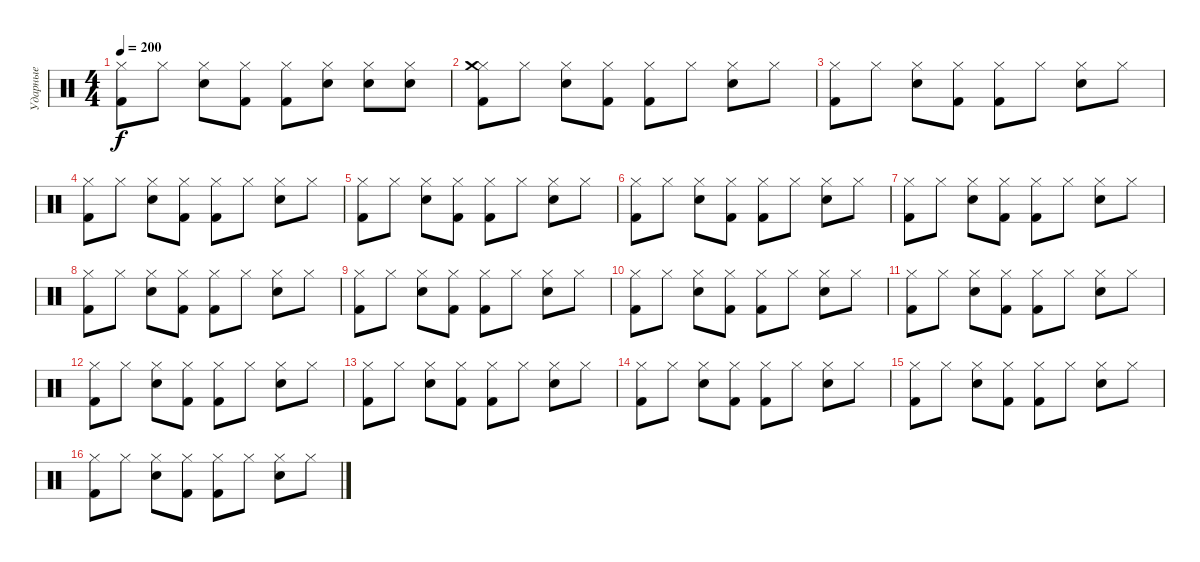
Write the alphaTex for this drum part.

\track ("Ударные" "Ударные") {instrument percussion}
\staff {score}
\articulation defaults
\ts (4 4)
\tempo 200
\clef neutral
\ks c
("Kick (hit) 2" "Hi-Hat (closed)").8{dy f} "Hi-Hat (closed)".8 ("Electric Snare (hit)" "Hi-Hat (closed)").8 ("Kick (hit) 2" "Hi-Hat (closed)").8 ("Kick (hit) 2" "Hi-Hat (closed)").8 ("Hi-Hat (closed)" "Electric Snare (hit)").8 ("Electric Snare (hit)" "Hi-Hat (closed)").8 ("Hi-Hat (closed)" "Electric Snare (hit)").8 |
("Kick (hit) 2" "Hi-Hat (closed)" "Crash medium (hit)").8 "Hi-Hat (closed)".8 ("Electric Snare (hit)" "Hi-Hat (closed)").8 ("Kick (hit) 2" "Hi-Hat (closed)").8 ("Kick (hit) 2" "Hi-Hat (closed)").8 "Hi-Hat (closed)".8 ("Electric Snare (hit)" "Hi-Hat (closed)").8 "Hi-Hat (closed)".8 |
("Kick (hit) 2" "Hi-Hat (closed)").8 "Hi-Hat (closed)".8 ("Electric Snare (hit)" "Hi-Hat (closed)").8 ("Kick (hit) 2" "Hi-Hat (closed)").8 ("Kick (hit) 2" "Hi-Hat (closed)").8 "Hi-Hat (closed)".8 ("Electric Snare (hit)" "Hi-Hat (closed)").8 "Hi-Hat (closed)".8 |
("Kick (hit) 2" "Hi-Hat (closed)").8 "Hi-Hat (closed)".8 ("Electric Snare (hit)" "Hi-Hat (closed)").8 ("Kick (hit) 2" "Hi-Hat (closed)").8 ("Kick (hit) 2" "Hi-Hat (closed)").8 "Hi-Hat (closed)".8 ("Electric Snare (hit)" "Hi-Hat (closed)").8 "Hi-Hat (closed)".8 |
("Kick (hit) 2" "Hi-Hat (closed)").8 "Hi-Hat (closed)".8 ("Electric Snare (hit)" "Hi-Hat (closed)").8 ("Kick (hit) 2" "Hi-Hat (closed)").8 ("Kick (hit) 2" "Hi-Hat (closed)").8 "Hi-Hat (closed)".8 ("Electric Snare (hit)" "Hi-Hat (closed)").8 "Hi-Hat (closed)".8 |
("Kick (hit) 2" "Hi-Hat (closed)").8 "Hi-Hat (closed)".8 ("Electric Snare (hit)" "Hi-Hat (closed)").8 ("Kick (hit) 2" "Hi-Hat (closed)").8 ("Kick (hit) 2" "Hi-Hat (closed)").8 "Hi-Hat (closed)".8 ("Electric Snare (hit)" "Hi-Hat (closed)").8 "Hi-Hat (closed)".8 |
("Kick (hit) 2" "Hi-Hat (closed)").8 "Hi-Hat (closed)".8 ("Electric Snare (hit)" "Hi-Hat (closed)").8 ("Kick (hit) 2" "Hi-Hat (closed)").8 ("Kick (hit) 2" "Hi-Hat (closed)").8 "Hi-Hat (closed)".8 ("Electric Snare (hit)" "Hi-Hat (closed)").8 "Hi-Hat (closed)".8 |
("Kick (hit) 2" "Hi-Hat (closed)").8 "Hi-Hat (closed)".8 ("Electric Snare (hit)" "Hi-Hat (closed)").8 ("Kick (hit) 2" "Hi-Hat (closed)").8 ("Kick (hit) 2" "Hi-Hat (closed)").8 "Hi-Hat (closed)".8 ("Electric Snare (hit)" "Hi-Hat (closed)").8 "Hi-Hat (closed)".8 |
("Kick (hit) 2" "Hi-Hat (closed)").8 "Hi-Hat (closed)".8 ("Electric Snare (hit)" "Hi-Hat (closed)").8 ("Kick (hit) 2" "Hi-Hat (closed)").8 ("Kick (hit) 2" "Hi-Hat (closed)").8 "Hi-Hat (closed)".8 ("Electric Snare (hit)" "Hi-Hat (closed)").8 "Hi-Hat (closed)".8 |
("Kick (hit) 2" "Hi-Hat (closed)").8 "Hi-Hat (closed)".8 ("Electric Snare (hit)" "Hi-Hat (closed)").8 ("Kick (hit) 2" "Hi-Hat (closed)").8 ("Kick (hit) 2" "Hi-Hat (closed)").8 "Hi-Hat (closed)".8 ("Electric Snare (hit)" "Hi-Hat (closed)").8 "Hi-Hat (closed)".8 |
("Kick (hit) 2" "Hi-Hat (closed)").8 "Hi-Hat (closed)".8 ("Electric Snare (hit)" "Hi-Hat (closed)").8 ("Kick (hit) 2" "Hi-Hat (closed)").8 ("Kick (hit) 2" "Hi-Hat (closed)").8 "Hi-Hat (closed)".8 ("Electric Snare (hit)" "Hi-Hat (closed)").8 "Hi-Hat (closed)".8 |
("Kick (hit) 2" "Hi-Hat (closed)").8 "Hi-Hat (closed)".8 ("Electric Snare (hit)" "Hi-Hat (closed)").8 ("Kick (hit) 2" "Hi-Hat (closed)").8 ("Kick (hit) 2" "Hi-Hat (closed)").8 "Hi-Hat (closed)".8 ("Electric Snare (hit)" "Hi-Hat (closed)").8 "Hi-Hat (closed)".8 |
("Kick (hit) 2" "Hi-Hat (closed)").8 "Hi-Hat (closed)".8 ("Electric Snare (hit)" "Hi-Hat (closed)").8 ("Kick (hit) 2" "Hi-Hat (closed)").8 ("Kick (hit) 2" "Hi-Hat (closed)").8 "Hi-Hat (closed)".8 ("Electric Snare (hit)" "Hi-Hat (closed)").8 "Hi-Hat (closed)".8 |
("Kick (hit) 2" "Hi-Hat (closed)").8 "Hi-Hat (closed)".8 ("Electric Snare (hit)" "Hi-Hat (closed)").8 ("Kick (hit) 2" "Hi-Hat (closed)").8 ("Kick (hit) 2" "Hi-Hat (closed)").8 "Hi-Hat (closed)".8 ("Electric Snare (hit)" "Hi-Hat (closed)").8 "Hi-Hat (closed)".8 |
("Kick (hit) 2" "Hi-Hat (closed)").8 "Hi-Hat (closed)".8 ("Electric Snare (hit)" "Hi-Hat (closed)").8 ("Kick (hit) 2" "Hi-Hat (closed)").8 ("Kick (hit) 2" "Hi-Hat (closed)").8 "Hi-Hat (closed)".8 ("Electric Snare (hit)" "Hi-Hat (closed)").8 "Hi-Hat (closed)".8 |
("Kick (hit) 2" "Hi-Hat (closed)").8 "Hi-Hat (closed)".8 ("Electric Snare (hit)" "Hi-Hat (closed)").8 ("Kick (hit) 2" "Hi-Hat (closed)").8 ("Kick (hit) 2" "Hi-Hat (closed)").8 "Hi-Hat (closed)".8 ("Electric Snare (hit)" "Hi-Hat (closed)").8 "Hi-Hat (closed)".8
